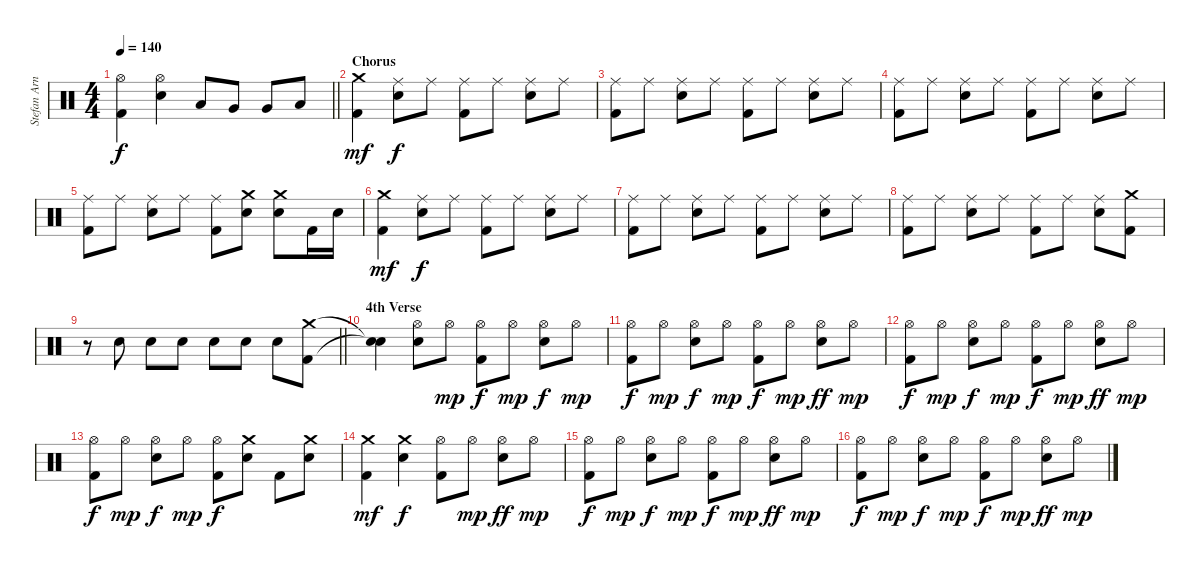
\track ("Stefan Arnold" "Stefan Arn") {instrument percussion}
\staff {score}
\articulation defaults
\ts (4 4)
\tempo 140
\clef neutral
\barLineRight lightlight
\ks c
("Hi-Hat (open)" "Kick (hit) 2").4{dy f} ("Hi-Hat (open)" "Electric Snare (hit)").4 "Low Tom (hit)".8 "Very Low Tom (hit)".8 "Very Low Tom (hit)".8 "Low Floor Tom (hit)".8 |
\section ("" "Chorus")
("Crash medium (hit)" "Kick (hit) 2").4{dy mf} ("Ride (middle)" "Electric Snare (hit)").8{dy f} "Ride (middle)".8 ("Ride (middle)" "Kick (hit) 2").8 "Ride (middle)".8 ("Ride (middle)" "Electric Snare (hit)").8 "Ride (middle)".8 |
("Ride (middle)" "Kick (hit) 2").8 "Ride (middle)".8 ("Ride (middle)" "Electric Snare (hit)").8 "Ride (middle)".8 ("Ride (middle)" "Kick (hit) 2").8 "Ride (middle)".8 ("Ride (middle)" "Electric Snare (hit)").8 "Ride (middle)".8 |
("Ride (middle)" "Kick (hit) 2").8 "Ride (middle)".8 ("Ride (middle)" "Electric Snare (hit)").8 "Ride (middle)".8 ("Ride (middle)" "Kick (hit) 2").8 "Ride (middle)".8 ("Ride (middle)" "Electric Snare (hit)").8 "Ride (middle)".8 |
("Ride (middle)" "Kick (hit) 2").8 "Ride (middle)".8 ("Ride (middle)" "Electric Snare (hit)").8 "Ride (middle)".8 ("Ride (middle)" "Kick (hit) 2").8 ("Crash medium (hit)" "Electric Snare (hit)").8 ("Crash medium (hit)" "Electric Snare (hit)").8 "Kick (hit) 2".16 "Electric Snare (hit)".16 |
("Crash medium (hit)" "Kick (hit) 2").4{dy mf} ("Ride (middle)" "Electric Snare (hit)").8{dy f} "Ride (middle)".8 ("Ride (middle)" "Kick (hit) 2").8 "Ride (middle)".8 ("Ride (middle)" "Electric Snare (hit)").8 "Ride (middle)".8 |
("Ride (middle)" "Kick (hit) 2").8 "Ride (middle)".8 ("Ride (middle)" "Electric Snare (hit)").8 "Ride (middle)".8 ("Ride (middle)" "Kick (hit) 2").8 "Ride (middle)".8 ("Ride (middle)" "Electric Snare (hit)").8 "Ride (middle)".8 |
("Ride (middle)" "Kick (hit) 2").8 "Ride (middle)".8 ("Ride (middle)" "Electric Snare (hit)").8 "Ride (middle)".8 ("Ride (middle)" "Kick (hit) 2").8 "Ride (middle)".8 ("Ride (middle)" "Electric Snare (hit)").8 ("Crash medium (hit)" "Kick (hit) 2").8 |
\barLineRight lightlight
r.8 "Electric Snare (hit)".8 "Electric Snare (hit)".8 "Electric Snare (hit)".8 "Electric Snare (hit)".8 "Electric Snare (hit)".8 "Electric Snare (hit)".8 ("Crash medium (hit)" "Kick (hit) 2").8 |
\section ("" "4th Verse")
("Snare (hit)"{t} "Snare (hit)"{t}).4 ("Hi-Hat (open)" "Electric Snare (hit)").8 "Hi-Hat (open)".8{dy mp} ("Hi-Hat (open)" "Kick (hit) 2").8{dy f} "Hi-Hat (open)".8{dy mp} ("Hi-Hat (open)" "Electric Snare (hit)").8{dy f} "Hi-Hat (open)".8{dy mp} |
("Hi-Hat (open)" "Kick (hit) 2").8{dy f} "Hi-Hat (open)".8{dy mp} ("Hi-Hat (open)" "Electric Snare (hit)").8{dy f} "Hi-Hat (open)".8{dy mp} ("Hi-Hat (open)" "Kick (hit) 2").8{dy f} "Hi-Hat (open)".8{dy mp} ("Hi-Hat (open)" "Electric Snare (hit)").8{dy ff} "Hi-Hat (open)".8{dy mp} |
("Hi-Hat (open)" "Kick (hit) 2").8{dy f} "Hi-Hat (open)".8{dy mp} ("Hi-Hat (open)" "Electric Snare (hit)").8{dy f} "Hi-Hat (open)".8{dy mp} ("Hi-Hat (open)" "Kick (hit) 2").8{dy f} "Hi-Hat (open)".8{dy mp} ("Hi-Hat (open)" "Electric Snare (hit)").8{dy ff} "Hi-Hat (open)".8{dy mp} |
("Hi-Hat (open)" "Kick (hit) 2").8{dy f} "Hi-Hat (open)".8{dy mp} ("Hi-Hat (open)" "Electric Snare (hit)").8{dy f} "Hi-Hat (open)".8{dy mp} ("Hi-Hat (open)" "Kick (hit) 2").8{dy f} ("Crash medium (hit)" "Electric Snare (hit)").8 "Kick (hit) 2".8 ("Crash medium (hit)" "Electric Snare (hit)").8 |
("Crash medium (hit)" "Kick (hit) 2").4{dy mf} ("Crash medium (hit)" "Electric Snare (hit)").4{dy f} ("Hi-Hat (open)" "Kick (hit) 2").8 "Hi-Hat (open)".8{dy mp} ("Hi-Hat (open)" "Electric Snare (hit)").8{dy ff} "Hi-Hat (open)".8{dy mp} |
("Hi-Hat (open)" "Kick (hit) 2").8{dy f} "Hi-Hat (open)".8{dy mp} ("Hi-Hat (open)" "Electric Snare (hit)").8{dy f} "Hi-Hat (open)".8{dy mp} ("Hi-Hat (open)" "Kick (hit) 2").8{dy f} "Hi-Hat (open)".8{dy mp} ("Hi-Hat (open)" "Electric Snare (hit)").8{dy ff} "Hi-Hat (open)".8{dy mp} |
("Hi-Hat (open)" "Kick (hit) 2").8{dy f} "Hi-Hat (open)".8{dy mp} ("Hi-Hat (open)" "Electric Snare (hit)").8{dy f} "Hi-Hat (open)".8{dy mp} ("Hi-Hat (open)" "Kick (hit) 2").8{dy f} "Hi-Hat (open)".8{dy mp} ("Hi-Hat (open)" "Electric Snare (hit)").8{dy ff} "Hi-Hat (open)".8{dy mp}
